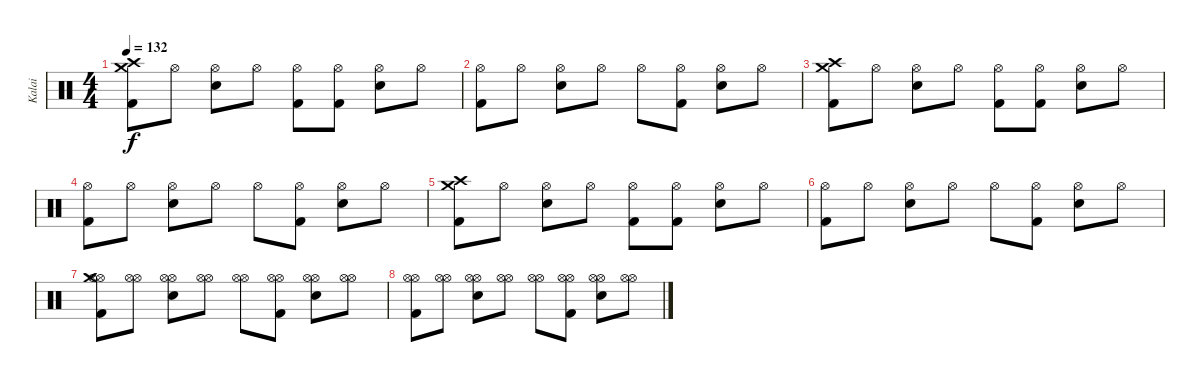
\track ("Kalai" "Kalai") {instrument percussion}
\staff {score}
\articulation defaults
\ts (4 4)
\tempo 132
\clef neutral
\ks c
("Crash medium (hit)" "Crash high (hit)" "Kick (hit) 2").8{dy f} "Hi-Hat (open)".8 ("Hi-Hat (open)" "Electric Snare (hit)").8 "Hi-Hat (open)".8 ("Hi-Hat (open)" "Kick (hit) 2").8 ("Hi-Hat (open)" "Kick (hit) 2").8 ("Hi-Hat (open)" "Electric Snare (hit)").8 "Hi-Hat (open)".8 |
("Hi-Hat (open)" "Kick (hit) 2").8 "Hi-Hat (open)".8 ("Hi-Hat (open)" "Electric Snare (hit)").8 "Hi-Hat (open)".8 "Hi-Hat (open)".8 ("Hi-Hat (open)" "Kick (hit) 2").8 ("Hi-Hat (open)" "Electric Snare (hit)").8 "Hi-Hat (open)".8 |
("Crash medium (hit)" "Crash high (hit)" "Kick (hit) 2").8 "Hi-Hat (open)".8 ("Hi-Hat (open)" "Electric Snare (hit)").8 "Hi-Hat (open)".8 ("Hi-Hat (open)" "Kick (hit) 2").8 ("Hi-Hat (open)" "Kick (hit) 2").8 ("Hi-Hat (open)" "Electric Snare (hit)").8 "Hi-Hat (open)".8 |
("Hi-Hat (open)" "Kick (hit) 2").8 "Hi-Hat (open)".8 ("Hi-Hat (open)" "Electric Snare (hit)").8 "Hi-Hat (open)".8 "Hi-Hat (open)".8 ("Hi-Hat (open)" "Kick (hit) 2").8 ("Hi-Hat (open)" "Electric Snare (hit)").8 "Hi-Hat (open)".8 |
("Crash medium (hit)" "Crash high (hit)" "Kick (hit) 2").8 "Hi-Hat (open)".8 ("Hi-Hat (open)" "Electric Snare (hit)").8 "Hi-Hat (open)".8 ("Hi-Hat (open)" "Kick (hit) 2").8 ("Hi-Hat (open)" "Kick (hit) 2").8 ("Hi-Hat (open)" "Electric Snare (hit)").8 "Hi-Hat (open)".8 |
("Hi-Hat (open)" "Kick (hit) 2").8 "Hi-Hat (open)".8 ("Hi-Hat (open)" "Electric Snare (hit)").8 "Hi-Hat (open)".8 "Hi-Hat (open)".8 ("Hi-Hat (open)" "Kick (hit) 2").8 ("Hi-Hat (open)" "Electric Snare (hit)").8 "Hi-Hat (open)".8 |
("Hi-Hat (open)" "Hi-Hat (open)" "Crash medium (hit)" "Kick (hit) 2").8 ("Hi-Hat (open)" "Hi-Hat (open)").8 ("Hi-Hat (open)" "Hi-Hat (open)" "Electric Snare (hit)").8 ("Hi-Hat (open)" "Hi-Hat (open)").8 ("Hi-Hat (open)" "Hi-Hat (open)").8 ("Hi-Hat (open)" "Hi-Hat (open)" "Kick (hit) 2").8 ("Hi-Hat (open)" "Hi-Hat (open)" "Electric Snare (hit)").8 ("Hi-Hat (open)" "Hi-Hat (open)").8 |
("Hi-Hat (open)" "Hi-Hat (open)" "Kick (hit) 2").8 ("Hi-Hat (open)" "Hi-Hat (open)").8 ("Hi-Hat (open)" "Hi-Hat (open)" "Electric Snare (hit)").8 ("Hi-Hat (open)" "Hi-Hat (open)").8 ("Hi-Hat (open)" "Hi-Hat (open)").8 ("Hi-Hat (open)" "Hi-Hat (open)" "Kick (hit) 2").8 ("Hi-Hat (open)" "Hi-Hat (open)" "Electric Snare (hit)").8 ("Hi-Hat (open)" "Hi-Hat (open)").8
